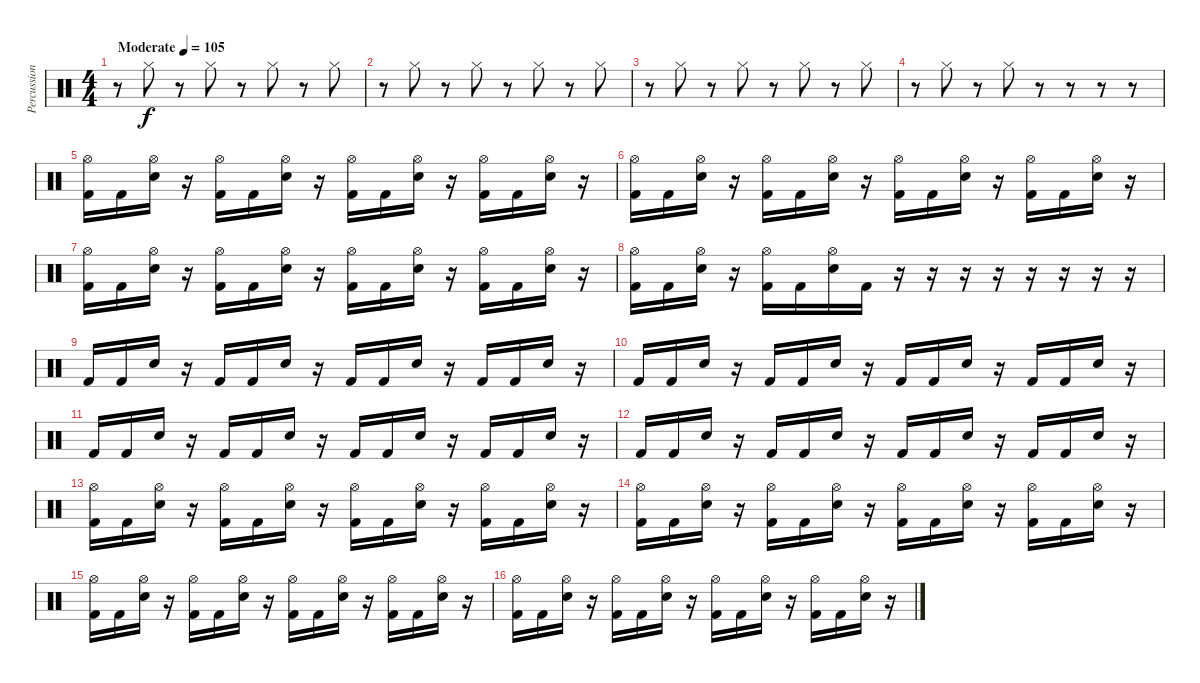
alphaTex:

\track ("Percussion" "Percussion") {instrument percussion}
\staff {score}
\articulation defaults
\ts (4 4)
\tempo (105 "Moderate")
\clef neutral
\ks c
r.8{dy f} "Hi-Hat (closed)".8 r.8 "Hi-Hat (closed)".8 r.8 "Hi-Hat (closed)".8 r.8 "Hi-Hat (closed)".8 |
r.8 "Hi-Hat (closed)".8 r.8 "Hi-Hat (closed)".8 r.8 "Hi-Hat (closed)".8 r.8 "Hi-Hat (closed)".8 |
r.8 "Hi-Hat (closed)".8 r.8 "Hi-Hat (closed)".8 r.8 "Hi-Hat (closed)".8 r.8 "Hi-Hat (closed)".8 |
r.8 "Hi-Hat (closed)".8 r.8 "Hi-Hat (closed)".8 r.8 r.8 r.8 r.8 |
("Hi-Hat (open)" "Kick (hit) 2").16 "Kick (hit) 2".16 ("Hi-Hat (open)" "Snare (hit) 2").16 r.16 ("Hi-Hat (open)" "Kick (hit) 2").16 "Kick (hit) 2".16 ("Hi-Hat (open)" "Snare (hit) 2").16 r.16 ("Hi-Hat (open)" "Kick (hit) 2").16 "Kick (hit) 2".16 ("Hi-Hat (open)" "Snare (hit) 2").16 r.16 ("Hi-Hat (open)" "Kick (hit) 2").16 "Kick (hit) 2".16 ("Hi-Hat (open)" "Snare (hit) 2").16 r.16 |
("Hi-Hat (open)" "Kick (hit) 2").16 "Kick (hit) 2".16 ("Hi-Hat (open)" "Snare (hit) 2").16 r.16 ("Hi-Hat (open)" "Kick (hit) 2").16 "Kick (hit) 2".16 ("Hi-Hat (open)" "Snare (hit) 2").16 r.16 ("Hi-Hat (open)" "Kick (hit) 2").16 "Kick (hit) 2".16 ("Hi-Hat (open)" "Snare (hit) 2").16 r.16 ("Hi-Hat (open)" "Kick (hit) 2").16 "Kick (hit) 2".16 ("Hi-Hat (open)" "Snare (hit) 2").16 r.16 |
("Hi-Hat (open)" "Kick (hit) 2").16 "Kick (hit) 2".16 ("Hi-Hat (open)" "Snare (hit) 2").16 r.16 ("Hi-Hat (open)" "Kick (hit) 2").16 "Kick (hit) 2".16 ("Hi-Hat (open)" "Snare (hit) 2").16 r.16 ("Hi-Hat (open)" "Kick (hit) 2").16 "Kick (hit) 2".16 ("Hi-Hat (open)" "Snare (hit) 2").16 r.16 ("Hi-Hat (open)" "Kick (hit) 2").16 "Kick (hit) 2".16 ("Hi-Hat (open)" "Snare (hit) 2").16 r.16 |
("Hi-Hat (open)" "Kick (hit) 2").16 "Kick (hit) 2".16 ("Hi-Hat (open)" "Snare (hit) 2").16 r.16 ("Hi-Hat (open)" "Kick (hit) 2").16 "Kick (hit) 2".16 ("Hi-Hat (open)" "Snare (hit) 2").16 "Kick (hit) 2".16 r.16 r.16 r.16 r.16 r.16 r.16 r.16 r.16 |
"Kick (hit) 2".16 "Kick (hit) 2".16 "Snare (hit) 2".16 r.16 "Kick (hit) 2".16 "Kick (hit) 2".16 "Snare (hit) 2".16 r.16 "Kick (hit) 2".16 "Kick (hit) 2".16 "Snare (hit) 2".16 r.16 "Kick (hit) 2".16 "Kick (hit) 2".16 "Snare (hit) 2".16 r.16 |
"Kick (hit) 2".16 "Kick (hit) 2".16 "Snare (hit) 2".16 r.16 "Kick (hit) 2".16 "Kick (hit) 2".16 "Snare (hit) 2".16 r.16 "Kick (hit) 2".16 "Kick (hit) 2".16 "Snare (hit) 2".16 r.16 "Kick (hit) 2".16 "Kick (hit) 2".16 "Snare (hit) 2".16 r.16 |
"Kick (hit) 2".16 "Kick (hit) 2".16 "Snare (hit) 2".16 r.16 "Kick (hit) 2".16 "Kick (hit) 2".16 "Snare (hit) 2".16 r.16 "Kick (hit) 2".16 "Kick (hit) 2".16 "Snare (hit) 2".16 r.16 "Kick (hit) 2".16 "Kick (hit) 2".16 "Snare (hit) 2".16 r.16 |
"Kick (hit) 2".16 "Kick (hit) 2".16 "Snare (hit) 2".16 r.16 "Kick (hit) 2".16 "Kick (hit) 2".16 "Snare (hit) 2".16 r.16 "Kick (hit) 2".16 "Kick (hit) 2".16 "Snare (hit) 2".16 r.16 "Kick (hit) 2".16 "Kick (hit) 2".16 "Snare (hit) 2".16 r.16 |
("Hi-Hat (open)" "Kick (hit) 2").16 "Kick (hit) 2".16 ("Hi-Hat (open)" "Snare (hit) 2").16 r.16 ("Hi-Hat (open)" "Kick (hit) 2").16 "Kick (hit) 2".16 ("Hi-Hat (open)" "Snare (hit) 2").16 r.16 ("Hi-Hat (open)" "Kick (hit) 2").16 "Kick (hit) 2".16 ("Hi-Hat (open)" "Snare (hit) 2").16 r.16 ("Hi-Hat (open)" "Kick (hit) 2").16 "Kick (hit) 2".16 ("Hi-Hat (open)" "Snare (hit) 2").16 r.16 |
("Hi-Hat (open)" "Kick (hit) 2").16 "Kick (hit) 2".16 ("Hi-Hat (open)" "Snare (hit) 2").16 r.16 ("Hi-Hat (open)" "Kick (hit) 2").16 "Kick (hit) 2".16 ("Hi-Hat (open)" "Snare (hit) 2").16 r.16 ("Hi-Hat (open)" "Kick (hit) 2").16 "Kick (hit) 2".16 ("Hi-Hat (open)" "Snare (hit) 2").16 r.16 ("Hi-Hat (open)" "Kick (hit) 2").16 "Kick (hit) 2".16 ("Hi-Hat (open)" "Snare (hit) 2").16 r.16 |
("Hi-Hat (open)" "Kick (hit) 2").16 "Kick (hit) 2".16 ("Hi-Hat (open)" "Snare (hit) 2").16 r.16 ("Hi-Hat (open)" "Kick (hit) 2").16 "Kick (hit) 2".16 ("Hi-Hat (open)" "Snare (hit) 2").16 r.16 ("Hi-Hat (open)" "Kick (hit) 2").16 "Kick (hit) 2".16 ("Hi-Hat (open)" "Snare (hit) 2").16 r.16 ("Hi-Hat (open)" "Kick (hit) 2").16 "Kick (hit) 2".16 ("Hi-Hat (open)" "Snare (hit) 2").16 r.16 |
("Hi-Hat (open)" "Kick (hit) 2").16 "Kick (hit) 2".16 ("Hi-Hat (open)" "Snare (hit) 2").16 r.16 ("Hi-Hat (open)" "Kick (hit) 2").16 "Kick (hit) 2".16 ("Hi-Hat (open)" "Snare (hit) 2").16 r.16 ("Hi-Hat (open)" "Kick (hit) 2").16 "Kick (hit) 2".16 ("Hi-Hat (open)" "Snare (hit) 2").16 r.16 ("Hi-Hat (open)" "Kick (hit) 2").16 "Kick (hit) 2".16 ("Hi-Hat (open)" "Snare (hit) 2").16 r.16
